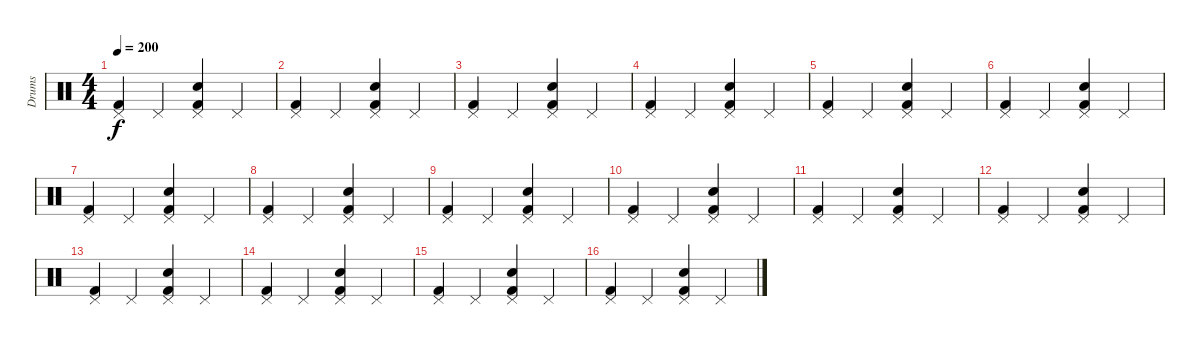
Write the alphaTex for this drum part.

\track ("Drums" "Drums") {instrument percussion}
\staff {score}
\articulation defaults
\ts (4 4)
\tempo 200
\clef neutral
\ks c
("Pedal Hi-Hat (hit)" "Kick (hit) 2").4{dy f} "Pedal Hi-Hat (hit)".4 ("Pedal Hi-Hat (hit)" "Kick (hit) 2" "Snare (hit) 2").4 "Pedal Hi-Hat (hit)".4 |
("Pedal Hi-Hat (hit)" "Kick (hit) 2").4 "Pedal Hi-Hat (hit)".4 ("Pedal Hi-Hat (hit)" "Kick (hit) 2" "Snare (hit) 2").4 "Pedal Hi-Hat (hit)".4 |
("Pedal Hi-Hat (hit)" "Kick (hit) 2").4 "Pedal Hi-Hat (hit)".4 ("Pedal Hi-Hat (hit)" "Kick (hit) 2" "Snare (hit) 2").4 "Pedal Hi-Hat (hit)".4 |
("Pedal Hi-Hat (hit)" "Kick (hit) 2").4 "Pedal Hi-Hat (hit)".4 ("Pedal Hi-Hat (hit)" "Kick (hit) 2" "Snare (hit) 2").4 "Pedal Hi-Hat (hit)".4 |
("Pedal Hi-Hat (hit)" "Kick (hit) 2").4 "Pedal Hi-Hat (hit)".4 ("Pedal Hi-Hat (hit)" "Kick (hit) 2" "Snare (hit) 2").4 "Pedal Hi-Hat (hit)".4 |
("Pedal Hi-Hat (hit)" "Kick (hit) 2").4 "Pedal Hi-Hat (hit)".4 ("Pedal Hi-Hat (hit)" "Kick (hit) 2" "Snare (hit) 2").4 "Pedal Hi-Hat (hit)".4 |
("Pedal Hi-Hat (hit)" "Kick (hit) 2").4 "Pedal Hi-Hat (hit)".4 ("Pedal Hi-Hat (hit)" "Kick (hit) 2" "Snare (hit) 2").4 "Pedal Hi-Hat (hit)".4 |
("Pedal Hi-Hat (hit)" "Kick (hit) 2").4 "Pedal Hi-Hat (hit)".4 ("Pedal Hi-Hat (hit)" "Kick (hit) 2" "Snare (hit) 2").4 "Pedal Hi-Hat (hit)".4 |
("Pedal Hi-Hat (hit)" "Kick (hit) 2").4 "Pedal Hi-Hat (hit)".4 ("Pedal Hi-Hat (hit)" "Kick (hit) 2" "Snare (hit) 2").4 "Pedal Hi-Hat (hit)".4 |
("Pedal Hi-Hat (hit)" "Kick (hit) 2").4 "Pedal Hi-Hat (hit)".4 ("Pedal Hi-Hat (hit)" "Kick (hit) 2" "Snare (hit) 2").4 "Pedal Hi-Hat (hit)".4 |
("Pedal Hi-Hat (hit)" "Kick (hit) 2").4 "Pedal Hi-Hat (hit)".4 ("Pedal Hi-Hat (hit)" "Kick (hit) 2" "Snare (hit) 2").4 "Pedal Hi-Hat (hit)".4 |
("Pedal Hi-Hat (hit)" "Kick (hit) 2").4 "Pedal Hi-Hat (hit)".4 ("Pedal Hi-Hat (hit)" "Kick (hit) 2" "Snare (hit) 2").4 "Pedal Hi-Hat (hit)".4 |
("Pedal Hi-Hat (hit)" "Kick (hit) 2").4 "Pedal Hi-Hat (hit)".4 ("Pedal Hi-Hat (hit)" "Kick (hit) 2" "Snare (hit) 2").4 "Pedal Hi-Hat (hit)".4 |
("Pedal Hi-Hat (hit)" "Kick (hit) 2").4 "Pedal Hi-Hat (hit)".4 ("Pedal Hi-Hat (hit)" "Kick (hit) 2" "Snare (hit) 2").4 "Pedal Hi-Hat (hit)".4 |
("Pedal Hi-Hat (hit)" "Kick (hit) 2").4 "Pedal Hi-Hat (hit)".4 ("Pedal Hi-Hat (hit)" "Kick (hit) 2" "Snare (hit) 2").4 "Pedal Hi-Hat (hit)".4 |
("Pedal Hi-Hat (hit)" "Kick (hit) 2").4 "Pedal Hi-Hat (hit)".4 ("Pedal Hi-Hat (hit)" "Kick (hit) 2" "Snare (hit) 2").4 "Pedal Hi-Hat (hit)".4
